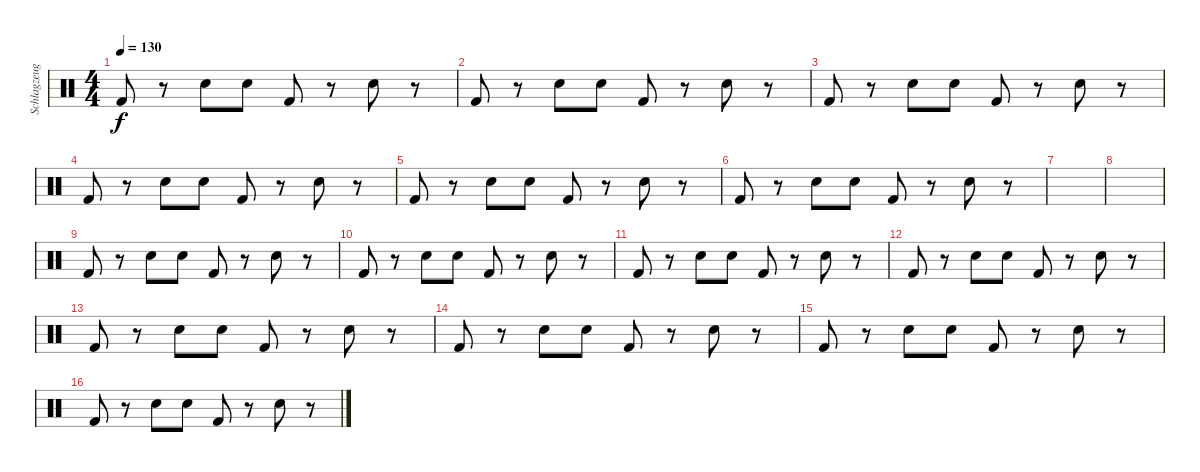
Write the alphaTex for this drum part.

\track ("Schlagzeug" "Schlagzeug") {instrument percussion}
\staff {score}
\articulation defaults
\ts (4 4)
\tempo 130
\clef neutral
\ks c "Kick (hit) 2".8{dy f}
r.8 "Snare (hit) 2".8 "Snare (hit) 2".8 "Kick (hit) 2".8 r.8 "Snare (hit) 2".8 r.8 |
"Kick (hit) 2".8 r.8 "Snare (hit) 2".8 "Snare (hit) 2".8 "Kick (hit) 2".8 r.8 "Snare (hit) 2".8 r.8 |
"Kick (hit) 2".8 r.8 "Snare (hit) 2".8 "Snare (hit) 2".8 "Kick (hit) 2".8 r.8 "Snare (hit) 2".8 r.8 |
"Kick (hit) 2".8 r.8 "Snare (hit) 2".8 "Snare (hit) 2".8 "Kick (hit) 2".8 r.8 "Snare (hit) 2".8 r.8 |
"Kick (hit) 2".8 r.8 "Snare (hit) 2".8 "Snare (hit) 2".8 "Kick (hit) 2".8 r.8 "Snare (hit) 2".8 r.8 |
"Kick (hit) 2".8 r.8 "Snare (hit) 2".8 "Snare (hit) 2".8 "Kick (hit) 2".8 r.8 "Snare (hit) 2".8 r.8 |
|
|
"Kick (hit) 2".8 r.8 "Snare (hit) 2".8 "Snare (hit) 2".8 "Kick (hit) 2".8 r.8 "Snare (hit) 2".8 r.8 |
"Kick (hit) 2".8 r.8 "Snare (hit) 2".8 "Snare (hit) 2".8 "Kick (hit) 2".8 r.8 "Snare (hit) 2".8 r.8 |
"Kick (hit) 2".8 r.8 "Snare (hit) 2".8 "Snare (hit) 2".8 "Kick (hit) 2".8 r.8 "Snare (hit) 2".8 r.8 |
"Kick (hit) 2".8 r.8 "Snare (hit) 2".8 "Snare (hit) 2".8 "Kick (hit) 2".8 r.8 "Snare (hit) 2".8 r.8 |
"Kick (hit) 2".8 r.8 "Snare (hit) 2".8 "Snare (hit) 2".8 "Kick (hit) 2".8 r.8 "Snare (hit) 2".8 r.8 |
"Kick (hit) 2".8 r.8 "Snare (hit) 2".8 "Snare (hit) 2".8 "Kick (hit) 2".8 r.8 "Snare (hit) 2".8 r.8 |
"Kick (hit) 2".8 r.8 "Snare (hit) 2".8 "Snare (hit) 2".8 "Kick (hit) 2".8 r.8 "Snare (hit) 2".8 r.8 |
"Kick (hit) 2".8 r.8 "Snare (hit) 2".8 "Snare (hit) 2".8 "Kick (hit) 2".8 r.8 "Snare (hit) 2".8 r.8
